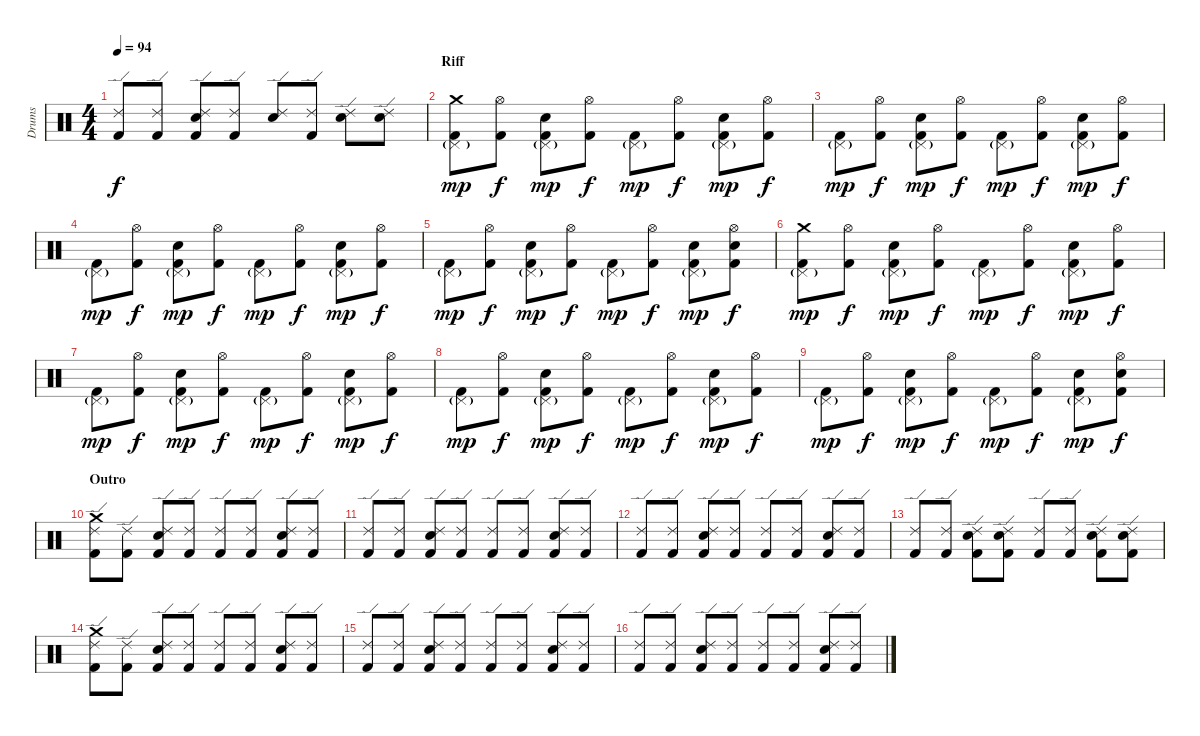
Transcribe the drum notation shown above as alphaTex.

\track ("Drums" "Drums") {instrument percussion}
\staff {score}
\articulation defaults
\ts (4 4)
\tempo 94
\clef neutral
\ks c
("Ride (edge) 2" "Kick (hit) 2").8{dy f} ("Ride (edge) 2" "Kick (hit) 2").8 ("Ride (edge) 2" "Snare (hit) 2" "Kick (hit) 2").8 ("Ride (edge) 2" "Kick (hit) 2").8 ("Ride (edge) 2" "Snare (hit) 2").8 ("Ride (edge) 2" "Kick (hit) 2").8 ("Ride (edge) 2" "Snare (hit) 2").8 ("Ride (edge) 2" "Snare (hit) 2").8 |
\section ("" "Riff")
("Pedal Hi-Hat (hit)"{g} "Crash medium (hit)" "Kick (hit) 2").8{dy mp} ("Hi-Hat (open)" "Kick (hit) 2").8{dy f} ("Pedal Hi-Hat (hit)"{g} "Snare (hit) 2" "Kick (hit) 2").8{dy mp} ("Hi-Hat (open)" "Kick (hit) 2").8{dy f} ("Pedal Hi-Hat (hit)"{g} "Kick (hit) 2").8{dy mp} ("Hi-Hat (open)" "Kick (hit) 2").8{dy f} ("Pedal Hi-Hat (hit)"{g} "Snare (hit) 2" "Kick (hit) 2").8{dy mp} ("Hi-Hat (open)" "Kick (hit) 2").8{dy f} |
("Pedal Hi-Hat (hit)"{g} "Kick (hit) 2").8{dy mp} ("Hi-Hat (open)" "Kick (hit) 2").8{dy f} ("Pedal Hi-Hat (hit)"{g} "Snare (hit) 2" "Kick (hit) 2").8{dy mp} ("Hi-Hat (open)" "Kick (hit) 2").8{dy f} ("Pedal Hi-Hat (hit)"{g} "Kick (hit) 2").8{dy mp} ("Hi-Hat (open)" "Kick (hit) 2").8{dy f} ("Pedal Hi-Hat (hit)"{g} "Snare (hit) 2" "Kick (hit) 2").8{dy mp} ("Hi-Hat (open)" "Kick (hit) 2").8{dy f} |
("Pedal Hi-Hat (hit)"{g} "Kick (hit) 2").8{dy mp} ("Hi-Hat (open)" "Kick (hit) 2").8{dy f} ("Pedal Hi-Hat (hit)"{g} "Snare (hit) 2" "Kick (hit) 2").8{dy mp} ("Hi-Hat (open)" "Kick (hit) 2").8{dy f} ("Pedal Hi-Hat (hit)"{g} "Kick (hit) 2").8{dy mp} ("Hi-Hat (open)" "Kick (hit) 2").8{dy f} ("Pedal Hi-Hat (hit)"{g} "Snare (hit) 2" "Kick (hit) 2").8{dy mp} ("Hi-Hat (open)" "Kick (hit) 2").8{dy f} |
("Pedal Hi-Hat (hit)"{g} "Kick (hit) 2").8{dy mp} ("Hi-Hat (open)" "Kick (hit) 2").8{dy f} ("Pedal Hi-Hat (hit)"{g} "Snare (hit) 2" "Kick (hit) 2").8{dy mp} ("Hi-Hat (open)" "Kick (hit) 2").8{dy f} ("Pedal Hi-Hat (hit)"{g} "Kick (hit) 2").8{dy mp} ("Hi-Hat (open)" "Kick (hit) 2").8{dy f} ("Pedal Hi-Hat (hit)"{g} "Snare (hit) 2" "Kick (hit) 2").8{dy mp} ("Hi-Hat (open)" "Snare (hit) 2" "Kick (hit) 2").8{dy f} |
("Pedal Hi-Hat (hit)"{g} "Crash medium (hit)" "Kick (hit) 2").8{dy mp} ("Hi-Hat (open)" "Kick (hit) 2").8{dy f} ("Pedal Hi-Hat (hit)"{g} "Snare (hit) 2" "Kick (hit) 2").8{dy mp} ("Hi-Hat (open)" "Kick (hit) 2").8{dy f} ("Pedal Hi-Hat (hit)"{g} "Kick (hit) 2").8{dy mp} ("Hi-Hat (open)" "Kick (hit) 2").8{dy f} ("Pedal Hi-Hat (hit)"{g} "Snare (hit) 2" "Kick (hit) 2").8{dy mp} ("Hi-Hat (open)" "Kick (hit) 2").8{dy f} |
("Pedal Hi-Hat (hit)"{g} "Kick (hit) 2").8{dy mp} ("Hi-Hat (open)" "Kick (hit) 2").8{dy f} ("Pedal Hi-Hat (hit)"{g} "Snare (hit) 2" "Kick (hit) 2").8{dy mp} ("Hi-Hat (open)" "Kick (hit) 2").8{dy f} ("Pedal Hi-Hat (hit)"{g} "Kick (hit) 2").8{dy mp} ("Hi-Hat (open)" "Kick (hit) 2").8{dy f} ("Pedal Hi-Hat (hit)"{g} "Snare (hit) 2" "Kick (hit) 2").8{dy mp} ("Hi-Hat (open)" "Kick (hit) 2").8{dy f} |
("Pedal Hi-Hat (hit)"{g} "Kick (hit) 2").8{dy mp} ("Hi-Hat (open)" "Kick (hit) 2").8{dy f} ("Pedal Hi-Hat (hit)"{g} "Snare (hit) 2" "Kick (hit) 2").8{dy mp} ("Hi-Hat (open)" "Kick (hit) 2").8{dy f} ("Pedal Hi-Hat (hit)"{g} "Kick (hit) 2").8{dy mp} ("Hi-Hat (open)" "Kick (hit) 2").8{dy f} ("Pedal Hi-Hat (hit)"{g} "Snare (hit) 2" "Kick (hit) 2").8{dy mp} ("Hi-Hat (open)" "Kick (hit) 2").8{dy f} |
("Pedal Hi-Hat (hit)"{g} "Kick (hit) 2").8{dy mp} ("Hi-Hat (open)" "Kick (hit) 2").8{dy f} ("Pedal Hi-Hat (hit)"{g} "Snare (hit) 2" "Kick (hit) 2").8{dy mp} ("Hi-Hat (open)" "Kick (hit) 2").8{dy f} ("Pedal Hi-Hat (hit)"{g} "Kick (hit) 2").8{dy mp} ("Hi-Hat (open)" "Kick (hit) 2").8{dy f} ("Pedal Hi-Hat (hit)"{g} "Snare (hit) 2" "Kick (hit) 2").8{dy mp} ("Hi-Hat (open)" "Snare (hit) 2" "Kick (hit) 2").8{dy f} |
\section ("" "Outro")
("Ride (edge) 2" "Crash medium (hit)" "Kick (hit) 2").8 ("Ride (edge) 2" "Kick (hit) 2").8 ("Ride (edge) 2" "Snare (hit) 2" "Kick (hit) 2").8 ("Ride (edge) 2" "Kick (hit) 2").8 ("Ride (edge) 2" "Kick (hit) 2").8 ("Ride (edge) 2" "Kick (hit) 2").8 ("Ride (edge) 2" "Snare (hit) 2" "Kick (hit) 2").8 ("Ride (edge) 2" "Kick (hit) 2").8 |
("Ride (edge) 2" "Kick (hit) 2").8 ("Ride (edge) 2" "Kick (hit) 2").8 ("Ride (edge) 2" "Snare (hit) 2" "Kick (hit) 2").8 ("Ride (edge) 2" "Kick (hit) 2").8 ("Ride (edge) 2" "Kick (hit) 2").8 ("Ride (edge) 2" "Kick (hit) 2").8 ("Ride (edge) 2" "Snare (hit) 2" "Kick (hit) 2").8 ("Ride (edge) 2" "Kick (hit) 2").8 |
("Ride (edge) 2" "Kick (hit) 2").8 ("Ride (edge) 2" "Kick (hit) 2").8 ("Ride (edge) 2" "Snare (hit) 2" "Kick (hit) 2").8 ("Ride (edge) 2" "Kick (hit) 2").8 ("Ride (edge) 2" "Kick (hit) 2").8 ("Ride (edge) 2" "Kick (hit) 2").8 ("Ride (edge) 2" "Snare (hit) 2" "Kick (hit) 2").8 ("Ride (edge) 2" "Kick (hit) 2").8 |
("Ride (edge) 2" "Kick (hit) 2").8 ("Ride (edge) 2" "Kick (hit) 2").8 ("Ride (edge) 2" "Snare (hit) 2" "Kick (hit) 2").8 ("Ride (edge) 2" "Snare (hit) 2" "Kick (hit) 2").8 ("Ride (edge) 2" "Kick (hit) 2").8 ("Ride (edge) 2" "Kick (hit) 2").8 ("Ride (edge) 2" "Snare (hit) 2" "Kick (hit) 2").8 ("Ride (edge) 2" "Snare (hit) 2" "Kick (hit) 2").8 |
("Ride (edge) 2" "Crash medium (hit)" "Kick (hit) 2").8 ("Ride (edge) 2" "Kick (hit) 2").8 ("Ride (edge) 2" "Snare (hit) 2" "Kick (hit) 2").8 ("Ride (edge) 2" "Kick (hit) 2").8 ("Ride (edge) 2" "Kick (hit) 2").8 ("Ride (edge) 2" "Kick (hit) 2").8 ("Ride (edge) 2" "Snare (hit) 2" "Kick (hit) 2").8 ("Ride (edge) 2" "Kick (hit) 2").8 |
("Ride (edge) 2" "Kick (hit) 2").8 ("Ride (edge) 2" "Kick (hit) 2").8 ("Ride (edge) 2" "Snare (hit) 2" "Kick (hit) 2").8 ("Ride (edge) 2" "Kick (hit) 2").8 ("Ride (edge) 2" "Kick (hit) 2").8 ("Ride (edge) 2" "Kick (hit) 2").8 ("Ride (edge) 2" "Snare (hit) 2" "Kick (hit) 2").8 ("Ride (edge) 2" "Kick (hit) 2").8 |
("Ride (edge) 2" "Kick (hit) 2").8 ("Ride (edge) 2" "Kick (hit) 2").8 ("Ride (edge) 2" "Snare (hit) 2" "Kick (hit) 2").8 ("Ride (edge) 2" "Kick (hit) 2").8 ("Ride (edge) 2" "Kick (hit) 2").8 ("Ride (edge) 2" "Kick (hit) 2").8 ("Ride (edge) 2" "Snare (hit) 2" "Kick (hit) 2").8 ("Ride (edge) 2" "Kick (hit) 2").8
